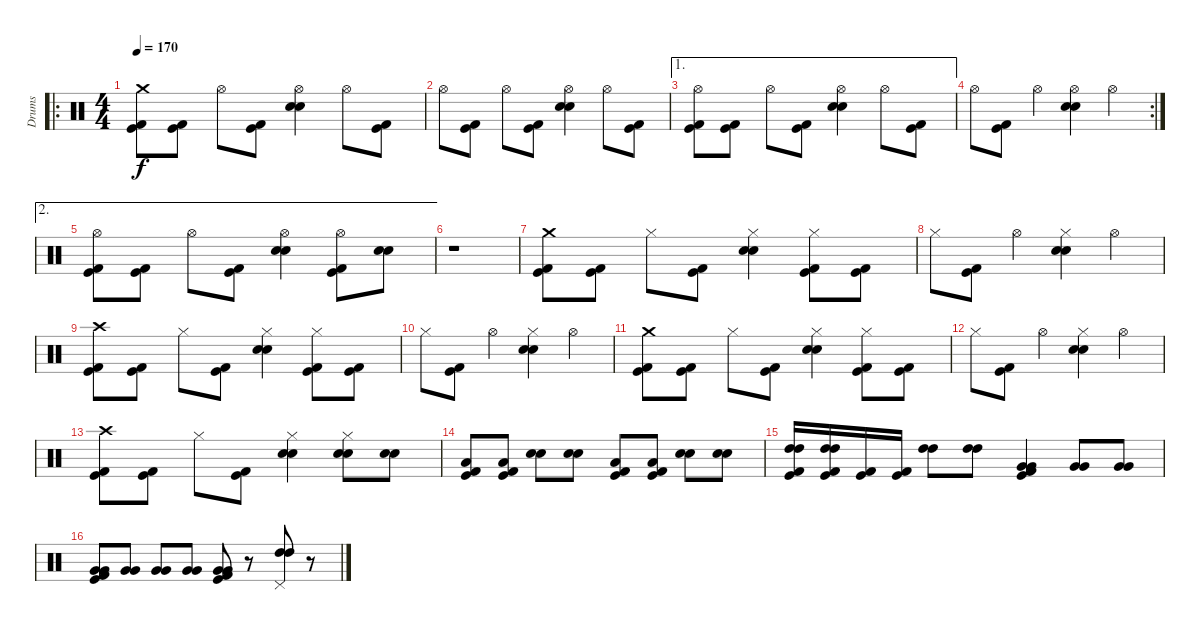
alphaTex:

\track ("Drums" "Drums") {instrument percussion}
\staff {score}
\articulation defaults
\ro
\ts (4 4)
\tempo 170
\clef neutral
\ks c
("Crash medium (hit)" "Kick (hit) 2" "Kick (hit)").8{dy f} ("Kick (hit) 2" "Kick (hit)").8 "Hi-Hat (open)".8 ("Kick (hit) 2" "Kick (hit)").8 ("Hi-Hat (open)" "Electric Snare (hit)" "Snare (hit) 2").4 "Hi-Hat (open)".8 ("Kick (hit) 2" "Kick (hit)").8 |
"Hi-Hat (open)".8 ("Kick (hit) 2" "Kick (hit)").8 "Hi-Hat (open)".8 ("Kick (hit) 2" "Kick (hit)").8 ("Hi-Hat (open)" "Electric Snare (hit)" "Snare (hit) 2").4 "Hi-Hat (open)".8 ("Kick (hit) 2" "Kick (hit)").8 |
\ae 1
("Hi-Hat (open)" "Kick (hit) 2" "Kick (hit)").8 ("Kick (hit) 2" "Kick (hit)").8 "Hi-Hat (open)".8 ("Kick (hit) 2" "Kick (hit)").8 ("Hi-Hat (open)" "Electric Snare (hit)" "Snare (hit) 2").4 "Hi-Hat (open)".8 ("Kick (hit) 2" "Kick (hit)").8 |
\rc 2 "Hi-Hat (open)".8
("Kick (hit) 2" "Kick (hit)").8 "Hi-Hat (open)".4 ("Hi-Hat (open)" "Electric Snare (hit)" "Snare (hit) 2").4 "Hi-Hat (open)".4 |
\ae 2
("Hi-Hat (open)" "Kick (hit) 2" "Kick (hit)").8 ("Kick (hit) 2" "Kick (hit)").8 "Hi-Hat (open)".8 ("Kick (hit) 2" "Kick (hit)").8 ("Hi-Hat (open)" "Electric Snare (hit)" "Snare (hit) 2").4 ("Hi-Hat (open)" "Kick (hit) 2" "Kick (hit)").8 ("Electric Snare (hit)" "Snare (hit) 2").8 |
r.1 |
("Crash medium (hit)" "Kick (hit) 2" "Kick (hit)").8 ("Kick (hit) 2" "Kick (hit)").8 "Hi-Hat (closed)".8 ("Kick (hit) 2" "Kick (hit)").8 ("Hi-Hat (closed)" "Electric Snare (hit)" "Snare (hit) 2").4 ("Hi-Hat (closed)" "Kick (hit) 2" "Kick (hit)").8 ("Kick (hit) 2" "Kick (hit)").8 |
"Hi-Hat (closed)".8 ("Kick (hit) 2" "Kick (hit)").8 "Hi-Hat (open)".4 ("Hi-Hat (closed)" "Electric Snare (hit)" "Snare (hit) 2").4 "Hi-Hat (open)".4 |
("Crash high (hit)" "Kick (hit) 2" "Kick (hit)").8 ("Kick (hit) 2" "Kick (hit)").8 "Hi-Hat (closed)".8 ("Kick (hit) 2" "Kick (hit)").8 ("Hi-Hat (closed)" "Electric Snare (hit)" "Snare (hit) 2").4 ("Hi-Hat (closed)" "Kick (hit) 2" "Kick (hit)").8 ("Kick (hit) 2" "Kick (hit)").8 |
"Hi-Hat (closed)".8 ("Kick (hit) 2" "Kick (hit)").8 "Hi-Hat (open)".4 ("Hi-Hat (closed)" "Electric Snare (hit)" "Snare (hit) 2").4 "Hi-Hat (open)".4 |
("Crash medium (hit)" "Kick (hit) 2" "Kick (hit)").8 ("Kick (hit) 2" "Kick (hit)").8 "Hi-Hat (closed)".8 ("Kick (hit) 2" "Kick (hit)").8 ("Hi-Hat (closed)" "Electric Snare (hit)" "Snare (hit) 2").4 ("Hi-Hat (closed)" "Kick (hit) 2" "Kick (hit)").8 ("Kick (hit) 2" "Kick (hit)").8 |
"Hi-Hat (closed)".8 ("Kick (hit) 2" "Kick (hit)").8 "Hi-Hat (open)".4 ("Hi-Hat (closed)" "Electric Snare (hit)" "Snare (hit) 2").4 "Hi-Hat (open)".4 |
("Crash high (hit)" "Kick (hit) 2" "Kick (hit)").8 ("Kick (hit) 2" "Kick (hit)").8 "Hi-Hat (closed)".8 ("Kick (hit) 2" "Kick (hit)").8 ("Hi-Hat (closed)" "Electric Snare (hit)" "Snare (hit) 2").4 ("Hi-Hat (closed)" "Electric Snare (hit)" "Snare (hit) 2").8 ("Electric Snare (hit)" "Snare (hit) 2").8 |
("Low Tom (hit)" "Kick (hit) 2" "Kick (hit)").8 ("Low Tom (hit)" "Kick (hit) 2" "Kick (hit)").8 ("Electric Snare (hit)" "Snare (hit) 2").8 ("Electric Snare (hit)" "Snare (hit) 2").8 ("Low Tom (hit)" "Kick (hit) 2" "Kick (hit)").8 ("Low Tom (hit)" "Kick (hit) 2" "Kick (hit)").8 ("Electric Snare (hit)" "Snare (hit) 2").8 ("Electric Snare (hit)" "Snare (hit) 2").8 |
("High Tom (hit)" "High Tom (hit)" "Kick (hit) 2" "Kick (hit)").16 ("High Tom (hit)" "High Tom (hit)" "Kick (hit) 2" "Kick (hit)").16 ("Kick (hit) 2" "Kick (hit)").16 ("Kick (hit) 2" "Kick (hit)").16 ("High Tom (hit)" "High Tom (hit)").8 ("High Tom (hit)" "High Tom (hit)").8 ("Very Low Tom (hit)" "Very Low Tom (hit)" "Kick (hit) 2" "Kick (hit)").4 ("Very Low Tom (hit)" "Very Low Tom (hit)").8 ("Very Low Tom (hit)" "Very Low Tom (hit)").8 |
("Very Low Tom (hit)" "Very Low Tom (hit)" "Kick (hit) 2" "Kick (hit)").8 ("Very Low Tom (hit)" "Very Low Tom (hit)").8 ("Very Low Tom (hit)" "Very Low Tom (hit)").8 ("Very Low Tom (hit)" "Very Low Tom (hit)").8 ("Very Low Tom (hit)" "Very Low Tom (hit)" "Kick (hit) 2" "Kick (hit)").8 r.8 ("Pedal Hi-Hat (hit)" "High Tom (hit)" "High Tom (hit)").8 r.8
